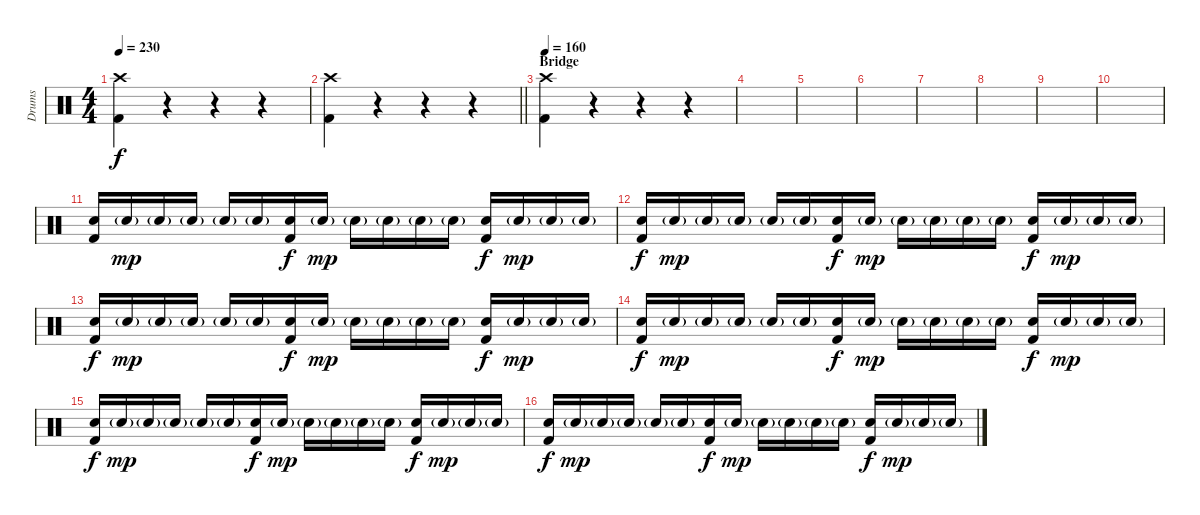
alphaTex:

\track ("Drums" "Drums") {instrument percussion}
\staff {score}
\articulation defaults
\ts (4 4)
\tempo 230
\clef neutral
\ks c
("Crash high (hit)" "Kick (hit) 2").4{dy f} r.4 r.4 r.4 |
\barLineRight lightlight
("Crash high (hit)" "Kick (hit) 2").4 r.4 r.4{volume 0} r.4 |
\section ("" "Bridge")
\tempo 160
("Crash high (hit)" "Kick (hit) 2").4{volume 16} r.4 r.4{volume 0} r.4 |
|
|
|
|
|
|
|
("Electric Snare (hit)" "Kick (hit) 2").16{volume 16} "Electric Snare (hit)"{g}.16{dy mp} "Electric Snare (hit)"{g}.16 "Electric Snare (hit)"{g}.16 "Electric Snare (hit)"{g}.16 "Electric Snare (hit)"{g}.16 ("Electric Snare (hit)" "Kick (hit) 2").16{dy f} "Electric Snare (hit)"{g}.16{dy mp} "Electric Snare (hit)"{g}.16 "Electric Snare (hit)"{g}.16 "Electric Snare (hit)"{g}.16 "Electric Snare (hit)"{g}.16 ("Electric Snare (hit)" "Kick (hit) 2").16{dy f} "Electric Snare (hit)"{g}.16{dy mp} "Electric Snare (hit)"{g}.16 "Electric Snare (hit)"{g}.16 |
("Electric Snare (hit)" "Kick (hit) 2").16{dy f} "Electric Snare (hit)"{g}.16{dy mp} "Electric Snare (hit)"{g}.16 "Electric Snare (hit)"{g}.16 "Electric Snare (hit)"{g}.16 "Electric Snare (hit)"{g}.16 ("Electric Snare (hit)" "Kick (hit) 2").16{dy f} "Electric Snare (hit)"{g}.16{dy mp} "Electric Snare (hit)"{g}.16 "Electric Snare (hit)"{g}.16 "Electric Snare (hit)"{g}.16 "Electric Snare (hit)"{g}.16 ("Electric Snare (hit)" "Kick (hit) 2").16{dy f} "Electric Snare (hit)"{g}.16{dy mp} "Electric Snare (hit)"{g}.16 "Electric Snare (hit)"{g}.16 |
("Electric Snare (hit)" "Kick (hit) 2").16{dy f} "Electric Snare (hit)"{g}.16{dy mp} "Electric Snare (hit)"{g}.16 "Electric Snare (hit)"{g}.16 "Electric Snare (hit)"{g}.16 "Electric Snare (hit)"{g}.16 ("Electric Snare (hit)" "Kick (hit) 2").16{dy f} "Electric Snare (hit)"{g}.16{dy mp} "Electric Snare (hit)"{g}.16 "Electric Snare (hit)"{g}.16 "Electric Snare (hit)"{g}.16 "Electric Snare (hit)"{g}.16 ("Electric Snare (hit)" "Kick (hit) 2").16{dy f} "Electric Snare (hit)"{g}.16{dy mp} "Electric Snare (hit)"{g}.16 "Electric Snare (hit)"{g}.16 |
("Electric Snare (hit)" "Kick (hit) 2").16{dy f} "Electric Snare (hit)"{g}.16{dy mp} "Electric Snare (hit)"{g}.16 "Electric Snare (hit)"{g}.16 "Electric Snare (hit)"{g}.16 "Electric Snare (hit)"{g}.16 ("Electric Snare (hit)" "Kick (hit) 2").16{dy f} "Electric Snare (hit)"{g}.16{dy mp} "Electric Snare (hit)"{g}.16 "Electric Snare (hit)"{g}.16 "Electric Snare (hit)"{g}.16 "Electric Snare (hit)"{g}.16 ("Electric Snare (hit)" "Kick (hit) 2").16{dy f} "Electric Snare (hit)"{g}.16{dy mp} "Electric Snare (hit)"{g}.16 "Electric Snare (hit)"{g}.16 |
("Electric Snare (hit)" "Kick (hit) 2").16{dy f} "Electric Snare (hit)"{g}.16{dy mp} "Electric Snare (hit)"{g}.16 "Electric Snare (hit)"{g}.16 "Electric Snare (hit)"{g}.16 "Electric Snare (hit)"{g}.16 ("Electric Snare (hit)" "Kick (hit) 2").16{dy f} "Electric Snare (hit)"{g}.16{dy mp} "Electric Snare (hit)"{g}.16 "Electric Snare (hit)"{g}.16 "Electric Snare (hit)"{g}.16 "Electric Snare (hit)"{g}.16 ("Electric Snare (hit)" "Kick (hit) 2").16{dy f} "Electric Snare (hit)"{g}.16{dy mp} "Electric Snare (hit)"{g}.16 "Electric Snare (hit)"{g}.16 |
("Electric Snare (hit)" "Kick (hit) 2").16{dy f} "Electric Snare (hit)"{g}.16{dy mp} "Electric Snare (hit)"{g}.16 "Electric Snare (hit)"{g}.16 "Electric Snare (hit)"{g}.16 "Electric Snare (hit)"{g}.16 ("Electric Snare (hit)" "Kick (hit) 2").16{dy f} "Electric Snare (hit)"{g}.16{dy mp} "Electric Snare (hit)"{g}.16 "Electric Snare (hit)"{g}.16 "Electric Snare (hit)"{g}.16 "Electric Snare (hit)"{g}.16 ("Electric Snare (hit)" "Kick (hit) 2").16{dy f} "Electric Snare (hit)"{g}.16{dy mp} "Electric Snare (hit)"{g}.16 "Electric Snare (hit)"{g}.16
